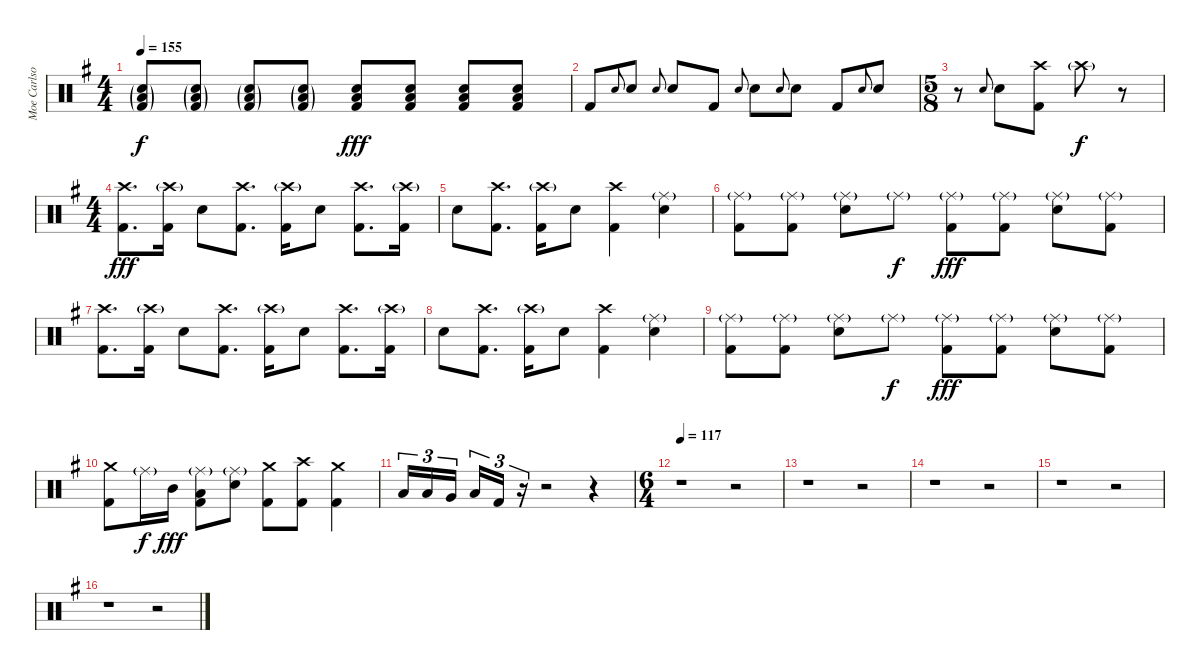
\track ("Moe Carlson" "Moe Carlso") {instrument percussion}
\staff {score}
\articulation defaults
\ts (4 4)
\tempo 155
\clef neutral
\ks g
("Electric Snare (hit)"{g} "Low Floor Tom (hit)"{g} "Kick (hit) 2"{g}).8{dy f} ("Electric Snare (hit)"{g} "Low Floor Tom (hit)"{g} "Kick (hit) 2"{g}).8 ("Electric Snare (hit)"{g} "Low Floor Tom (hit)"{g} "Kick (hit) 2"{g}).8 ("Electric Snare (hit)"{g} "Low Floor Tom (hit)"{g} "Kick (hit) 2"{g}).8 ("Electric Snare (hit)" "Low Floor Tom (hit)" "Kick (hit) 2").8{dy fff} ("Electric Snare (hit)" "Low Floor Tom (hit)" "Kick (hit) 2").8 ("Electric Snare (hit)" "Low Floor Tom (hit)" "Kick (hit) 2").8 ("Electric Snare (hit)" "Low Floor Tom (hit)" "Kick (hit) 2").8 |
"Kick (hit) 2".8 "Electric Snare (hit)".8{gr onbeat} "Electric Snare (hit)".8 "Electric Snare (hit)".8{gr onbeat} "Electric Snare (hit)".8 "Kick (hit) 2".8 "Electric Snare (hit)".8{gr onbeat} "Electric Snare (hit)".8 "Electric Snare (hit)".8{gr onbeat} "Electric Snare (hit)".8 "Kick (hit) 2".8 "Electric Snare (hit)".8{gr onbeat} "Electric Snare (hit)".8 |
\ts (5 8)
r.8 "Electric Snare (hit)".8{gr onbeat} "Electric Snare (hit)".8 ("Crash high (hit)" "Kick (hit) 2").8 "Crash high (hit)"{g}.8{dy f volume 0} r.8 |
\ts (4 4)
("Crash high (hit)" "Kick (hit) 2").8{d dy fff volume 16} ("Crash high (hit)"{g} "Kick (hit) 2").16 "Electric Snare (hit)".8 ("Crash high (hit)" "Kick (hit) 2").8{d} ("Crash high (hit)"{g} "Kick (hit) 2").16 "Electric Snare (hit)".8 ("Crash high (hit)" "Kick (hit) 2").8{d} ("Crash high (hit)"{g} "Kick (hit) 2").16 |
"Electric Snare (hit)".8 ("Crash high (hit)" "Kick (hit) 2").8{d} ("Crash high (hit)"{g} "Kick (hit) 2").16 "Electric Snare (hit)".8 ("Crash high (hit)" "Kick (hit) 2").4 ("Ride (middle)"{g} "Electric Snare (hit)").4 |
("Ride (middle)"{g} "Kick (hit) 2").8 ("Ride (middle)"{g} "Kick (hit) 2").8 ("Ride (middle)"{g} "Electric Snare (hit)").8 "Ride (middle)"{g}.8{dy f} ("Ride (middle)"{g} "Kick (hit) 2").8{dy fff} ("Ride (middle)"{g} "Kick (hit) 2").8 ("Ride (middle)"{g} "Electric Snare (hit)").8 ("Ride (middle)"{g} "Kick (hit) 2").8 |
("Crash high (hit)" "Kick (hit) 2").8{d} ("Crash high (hit)"{g} "Kick (hit) 2").16 "Electric Snare (hit)".8 ("Crash high (hit)" "Kick (hit) 2").8{d} ("Crash high (hit)"{g} "Kick (hit) 2").16 "Electric Snare (hit)".8 ("Crash high (hit)" "Kick (hit) 2").8{d} ("Crash high (hit)"{g} "Kick (hit) 2").16 |
"Electric Snare (hit)".8 ("Crash high (hit)" "Kick (hit) 2").8{d} ("Crash high (hit)"{g} "Kick (hit) 2").16 "Electric Snare (hit)".8 ("Crash high (hit)" "Kick (hit) 2").4 ("Ride (middle)"{g} "Electric Snare (hit)").4 |
("Ride (middle)"{g} "Kick (hit) 2").8 ("Ride (middle)"{g} "Kick (hit) 2").8 ("Ride (middle)"{g} "Electric Snare (hit)").8 "Ride (middle)"{g}.8{dy f} ("Ride (middle)"{g} "Kick (hit) 2").8{dy fff} ("Ride (middle)"{g} "Kick (hit) 2").8 ("Ride (middle)"{g} "Electric Snare (hit)").8 ("Ride (middle)"{g} "Kick (hit) 2").8 |
("Crash medium (hit)" "Kick (hit) 2").8 "Ride (middle)"{g}.16{dy f} "Mid Tom (hit)".16{dy fff} ("Ride (middle)"{g} "Low Tom (hit)" "Kick (hit) 2").8 ("Ride (middle)"{g} "Electric Snare (hit)").8 ("Crash medium (hit)" "Kick (hit) 2").8 ("Crash high (hit)" "Kick (hit) 2").8 ("Crash medium (hit)" "Kick (hit) 2").4 |
"Low Tom (hit)".16{tu (3 2)} "Low Tom (hit)".16{tu (3 2)} "Very Low Tom (hit)".16{tu (3 2) beam splitsecondary} "Low Floor Tom (hit)".16{tu (3 2)} "Kick (hit) 2".16{tu (3 2)} r.16{tu (3 2)} r.2 r.4 |
\ts (6 4)
\tempo 117
r.1 r.2 |
r.1 r.2 |
r.1 r.2 |
r.1 r.2 |
r.1 r.2
